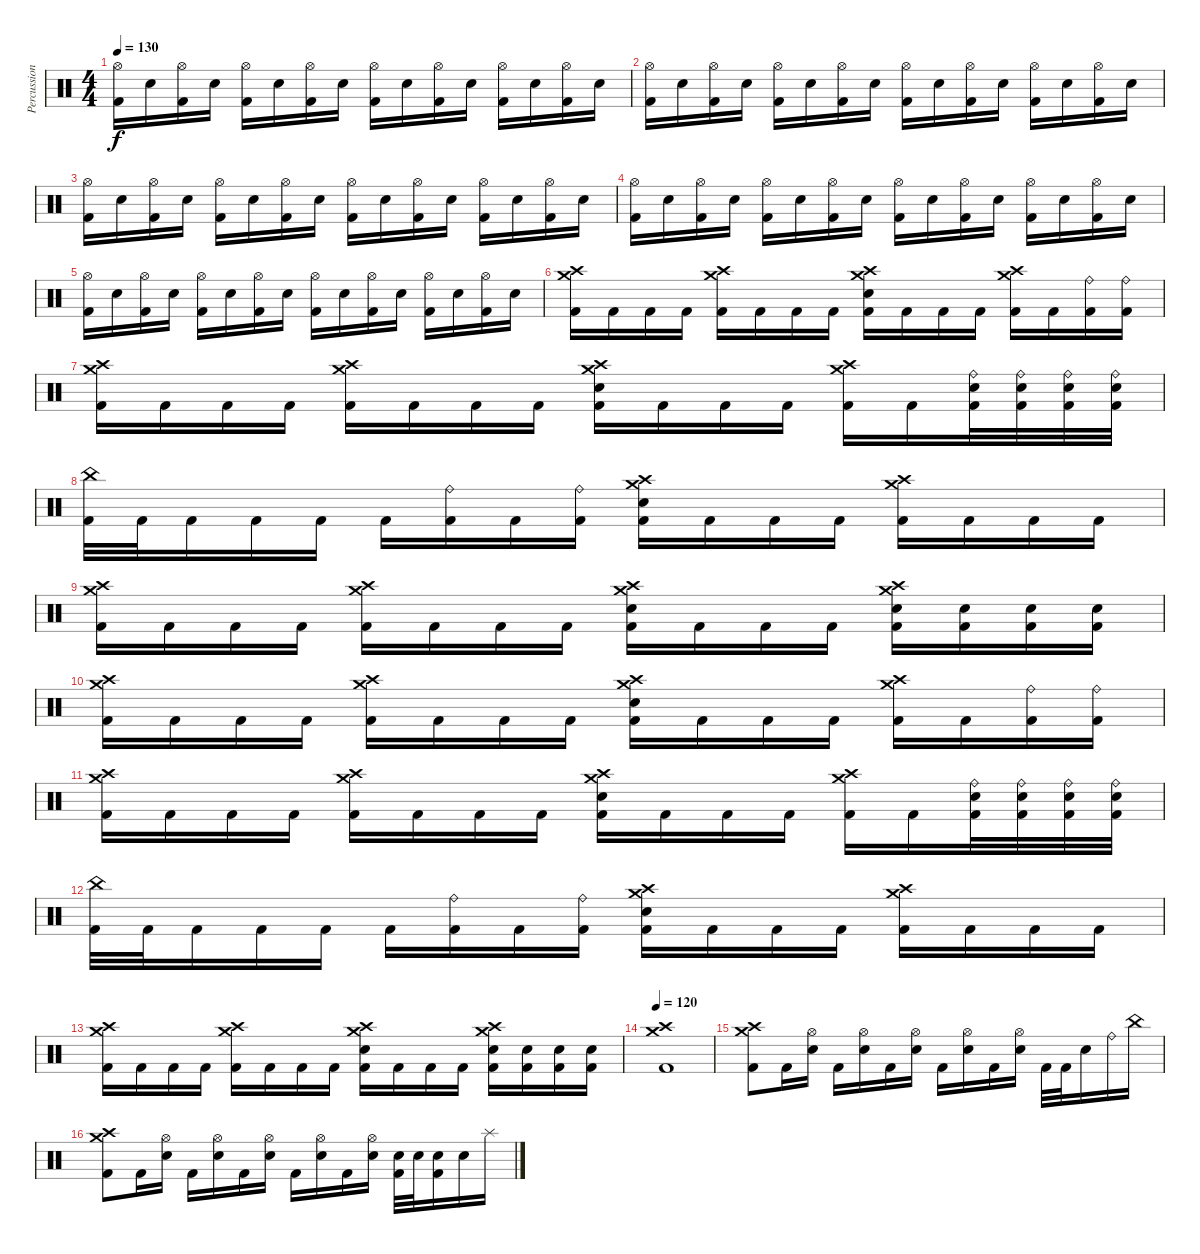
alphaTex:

\track ("Percussion" "Percussion") {instrument percussion}
\staff {score}
\articulation defaults
\ts (4 4)
\tempo 130
\clef neutral
\ks c
("Hi-Hat (open)" "Kick (hit) 2").16{dy f} "Snare (hit) 2".16 ("Hi-Hat (open)" "Kick (hit) 2").16 "Snare (hit) 2".16 ("Hi-Hat (open)" "Kick (hit) 2").16 "Snare (hit) 2".16 ("Hi-Hat (open)" "Kick (hit) 2").16 "Snare (hit) 2".16 ("Hi-Hat (open)" "Kick (hit) 2").16 "Snare (hit) 2".16 ("Hi-Hat (open)" "Kick (hit) 2").16 "Snare (hit) 2".16 ("Hi-Hat (open)" "Kick (hit) 2").16 "Snare (hit) 2".16 ("Hi-Hat (open)" "Kick (hit) 2").16 "Snare (hit) 2".16 |
("Hi-Hat (open)" "Kick (hit) 2").16 "Snare (hit) 2".16 ("Hi-Hat (open)" "Kick (hit) 2").16 "Snare (hit) 2".16 ("Hi-Hat (open)" "Kick (hit) 2").16 "Snare (hit) 2".16 ("Hi-Hat (open)" "Kick (hit) 2").16 "Snare (hit) 2".16 ("Hi-Hat (open)" "Kick (hit) 2").16 "Snare (hit) 2".16 ("Hi-Hat (open)" "Kick (hit) 2").16 "Snare (hit) 2".16 ("Hi-Hat (open)" "Kick (hit) 2").16 "Snare (hit) 2".16 ("Hi-Hat (open)" "Kick (hit) 2").16 "Snare (hit) 2".16 |
("Hi-Hat (open)" "Kick (hit) 2").16 "Snare (hit) 2".16 ("Hi-Hat (open)" "Kick (hit) 2").16 "Snare (hit) 2".16 ("Hi-Hat (open)" "Kick (hit) 2").16 "Snare (hit) 2".16 ("Hi-Hat (open)" "Kick (hit) 2").16 "Snare (hit) 2".16 ("Hi-Hat (open)" "Kick (hit) 2").16 "Snare (hit) 2".16 ("Hi-Hat (open)" "Kick (hit) 2").16 "Snare (hit) 2".16 ("Hi-Hat (open)" "Kick (hit) 2").16 "Snare (hit) 2".16 ("Hi-Hat (open)" "Kick (hit) 2").16 "Snare (hit) 2".16 |
("Hi-Hat (open)" "Kick (hit) 2").16 "Snare (hit) 2".16 ("Hi-Hat (open)" "Kick (hit) 2").16 "Snare (hit) 2".16 ("Hi-Hat (open)" "Kick (hit) 2").16 "Snare (hit) 2".16 ("Hi-Hat (open)" "Kick (hit) 2").16 "Snare (hit) 2".16 ("Hi-Hat (open)" "Kick (hit) 2").16 "Snare (hit) 2".16 ("Hi-Hat (open)" "Kick (hit) 2").16 "Snare (hit) 2".16 ("Hi-Hat (open)" "Kick (hit) 2").16 "Snare (hit) 2".16 ("Hi-Hat (open)" "Kick (hit) 2").16 "Snare (hit) 2".16 |
("Hi-Hat (open)" "Kick (hit) 2").16 "Snare (hit) 2".16 ("Hi-Hat (open)" "Kick (hit) 2").16 "Snare (hit) 2".16 ("Hi-Hat (open)" "Kick (hit) 2").16 "Snare (hit) 2".16 ("Hi-Hat (open)" "Kick (hit) 2").16 "Snare (hit) 2".16 ("Hi-Hat (open)" "Kick (hit) 2").16 "Snare (hit) 2".16 ("Hi-Hat (open)" "Kick (hit) 2").16 "Snare (hit) 2".16 ("Hi-Hat (open)" "Kick (hit) 2").16 "Snare (hit) 2".16 ("Hi-Hat (open)" "Kick (hit) 2").16 "Snare (hit) 2".16 |
("Crash high (hit)" "Crash medium (hit)" "Kick (hit) 2").16 "Kick (hit) 2".16 "Kick (hit) 2".16 "Kick (hit) 2".16 ("Crash high (hit)" "Crash medium (hit)" "Kick (hit) 2").16 "Kick (hit) 2".16 "Kick (hit) 2".16 "Kick (hit) 2".16 ("Crash high (hit)" "Crash medium (hit)" "Snare (hit) 2" "Kick (hit) 2").16 "Kick (hit) 2".16 "Kick (hit) 2".16 "Kick (hit) 2".16 ("Crash high (hit)" "Crash medium (hit)" "Kick (hit) 2").16 "Kick (hit) 2".16 ("Ride (bell)" "Kick (hit) 2").16 ("Ride (bell)" "Kick (hit) 2").16 |
("Crash high (hit)" "Crash medium (hit)" "Kick (hit) 2").16 "Kick (hit) 2".16 "Kick (hit) 2".16 "Kick (hit) 2".16 ("Crash high (hit)" "Crash medium (hit)" "Kick (hit) 2").16 "Kick (hit) 2".16 "Kick (hit) 2".16 "Kick (hit) 2".16 ("Crash high (hit)" "Crash medium (hit)" "Snare (hit) 2" "Kick (hit) 2").16 "Kick (hit) 2".16 "Kick (hit) 2".16 "Kick (hit) 2".16 ("Crash high (hit)" "Crash medium (hit)" "Kick (hit) 2").16 "Kick (hit) 2".16 ("Ride (bell)" "Snare (hit) 2" "Kick (hit) 2").32 ("Ride (bell)" "Snare (hit) 2" "Kick (hit) 2").32 ("Ride (bell)" "Snare (hit) 2" "Kick (hit) 2").32 ("Ride (bell)" "Snare (hit) 2" "Kick (hit) 2").32 |
("China (hit)" "Kick (hit) 2").32 "Kick (hit) 2".32 "Kick (hit) 2".16 "Kick (hit) 2".16 "Kick (hit) 2".16 "Kick (hit) 2".16 ("Ride (bell)" "Kick (hit) 2").16 "Kick (hit) 2".16 ("Ride (bell)" "Kick (hit) 2").16 ("Crash high (hit)" "Crash medium (hit)" "Snare (hit) 2" "Kick (hit) 2").16 "Kick (hit) 2".16 "Kick (hit) 2".16 "Kick (hit) 2".16 ("Crash high (hit)" "Crash medium (hit)" "Kick (hit) 2").16 "Kick (hit) 2".16 "Kick (hit) 2".16 "Kick (hit) 2".16 |
("Crash high (hit)" "Crash medium (hit)" "Kick (hit) 2").16 "Kick (hit) 2".16 "Kick (hit) 2".16 "Kick (hit) 2".16 ("Crash high (hit)" "Crash medium (hit)" "Kick (hit) 2").16 "Kick (hit) 2".16 "Kick (hit) 2".16 "Kick (hit) 2".16 ("Crash high (hit)" "Crash medium (hit)" "Snare (hit) 2" "Kick (hit) 2").16 "Kick (hit) 2".16 "Kick (hit) 2".16 "Kick (hit) 2".16 ("Crash high (hit)" "Crash medium (hit)" "Snare (hit) 2" "Kick (hit) 2").16 ("Snare (hit) 2" "Kick (hit) 2").16 ("Snare (hit) 2" "Kick (hit) 2").16 ("Snare (hit) 2" "Kick (hit) 2").16 |
("Crash high (hit)" "Crash medium (hit)" "Kick (hit) 2").16 "Kick (hit) 2".16 "Kick (hit) 2".16 "Kick (hit) 2".16 ("Crash high (hit)" "Crash medium (hit)" "Kick (hit) 2").16 "Kick (hit) 2".16 "Kick (hit) 2".16 "Kick (hit) 2".16 ("Crash high (hit)" "Crash medium (hit)" "Snare (hit) 2" "Kick (hit) 2").16 "Kick (hit) 2".16 "Kick (hit) 2".16 "Kick (hit) 2".16 ("Crash high (hit)" "Crash medium (hit)" "Kick (hit) 2").16 "Kick (hit) 2".16 ("Ride (bell)" "Kick (hit) 2").16 ("Ride (bell)" "Kick (hit) 2").16 |
("Crash high (hit)" "Crash medium (hit)" "Kick (hit) 2").16 "Kick (hit) 2".16 "Kick (hit) 2".16 "Kick (hit) 2".16 ("Crash high (hit)" "Crash medium (hit)" "Kick (hit) 2").16 "Kick (hit) 2".16 "Kick (hit) 2".16 "Kick (hit) 2".16 ("Crash high (hit)" "Crash medium (hit)" "Snare (hit) 2" "Kick (hit) 2").16 "Kick (hit) 2".16 "Kick (hit) 2".16 "Kick (hit) 2".16 ("Crash high (hit)" "Crash medium (hit)" "Kick (hit) 2").16 "Kick (hit) 2".16 ("Ride (bell)" "Snare (hit) 2" "Kick (hit) 2").32 ("Ride (bell)" "Snare (hit) 2" "Kick (hit) 2").32 ("Ride (bell)" "Snare (hit) 2" "Kick (hit) 2").32 ("Ride (bell)" "Snare (hit) 2" "Kick (hit) 2").32 |
("China (hit)" "Kick (hit) 2").32 "Kick (hit) 2".32 "Kick (hit) 2".16 "Kick (hit) 2".16 "Kick (hit) 2".16 "Kick (hit) 2".16 ("Ride (bell)" "Kick (hit) 2").16 "Kick (hit) 2".16 ("Ride (bell)" "Kick (hit) 2").16 ("Crash high (hit)" "Crash medium (hit)" "Snare (hit) 2" "Kick (hit) 2").16 "Kick (hit) 2".16 "Kick (hit) 2".16 "Kick (hit) 2".16 ("Crash high (hit)" "Crash medium (hit)" "Kick (hit) 2").16 "Kick (hit) 2".16 "Kick (hit) 2".16 "Kick (hit) 2".16 |
("Crash high (hit)" "Crash medium (hit)" "Kick (hit) 2").16 "Kick (hit) 2".16 "Kick (hit) 2".16 "Kick (hit) 2".16 ("Crash high (hit)" "Crash medium (hit)" "Kick (hit) 2").16 "Kick (hit) 2".16 "Kick (hit) 2".16 "Kick (hit) 2".16 ("Crash high (hit)" "Crash medium (hit)" "Snare (hit) 2" "Kick (hit) 2").16 "Kick (hit) 2".16 "Kick (hit) 2".16 "Kick (hit) 2".16 ("Crash high (hit)" "Crash medium (hit)" "Snare (hit) 2" "Kick (hit) 2").16 ("Snare (hit) 2" "Kick (hit) 2").16 ("Snare (hit) 2" "Kick (hit) 2").16 ("Snare (hit) 2" "Kick (hit) 2").16 |
\tempo 120
("Crash high (hit)" "Crash medium (hit)" "Kick (hit) 2").1 |
("Crash high (hit)" "Crash medium (hit)" "Kick (hit) 2").8 "Kick (hit) 2".16 ("Hi-Hat (open)" "Snare (hit) 2").16 "Kick (hit) 2".16 ("Hi-Hat (open)" "Snare (hit) 2").16 "Kick (hit) 2".16 ("Hi-Hat (open)" "Snare (hit) 2").16 "Kick (hit) 2".16 ("Hi-Hat (open)" "Snare (hit) 2").16 "Kick (hit) 2".16 ("Hi-Hat (open)" "Snare (hit) 2").16 "Kick (hit) 2".32 "Kick (hit) 2".32 "Snare (hit) 2".16 "Ride (bell)".16 "China (hit)".16 |
("Crash high (hit)" "Crash medium (hit)" "Kick (hit) 2").8 "Kick (hit) 2".16 ("Hi-Hat (open)" "Snare (hit) 2").16 "Kick (hit) 2".16 ("Hi-Hat (open)" "Snare (hit) 2").16 "Kick (hit) 2".16 ("Hi-Hat (open)" "Snare (hit) 2").16 "Kick (hit) 2".16 ("Hi-Hat (open)" "Snare (hit) 2").16 "Kick (hit) 2".16 ("Hi-Hat (open)" "Snare (hit) 2").16 ("Snare (hit) 2" "Kick (hit) 2").32 "Snare (hit) 2".32 ("Snare (hit) 2" "Kick (hit) 2").16 "Snare (hit) 2".16 "Splash (hit)".16
